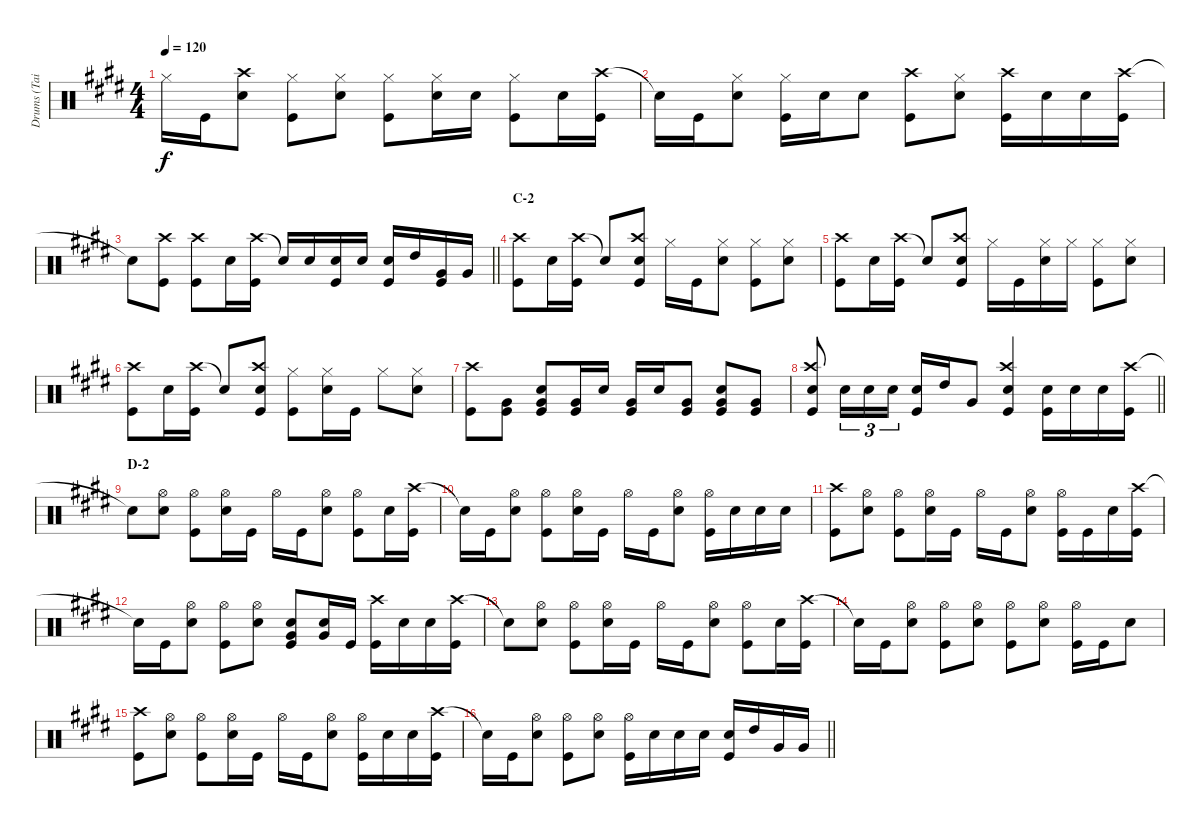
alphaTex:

\track ("Drums (Tainaka Ritsu)" "Drums (Tai") {instrument percussion}
\staff {score}
\articulation defaults
\ts (4 4)
\tempo 120
\clef neutral
\ks e "Hi-Hat (closed)".16{dy f} "Kick (hit)".16
("Crash high (hit)" "Snare (hit) 2").8 ("Hi-Hat (closed)" "Kick (hit)").8 ("Hi-Hat (closed)" "Snare (hit) 2").8 ("Hi-Hat (closed)" "Kick (hit)").8 ("Hi-Hat (closed)" "Snare (hit) 2").16 "Snare (hit) 2".16 ("Hi-Hat (closed)" "Kick (hit)").8 "Snare (hit) 2".16 ("Crash high (hit)" "Kick (hit)").16 |
"Snare (hit)"{t}.16 "Kick (hit)".16 ("Hi-Hat (closed)" "Snare (hit) 2").8 ("Hi-Hat (closed)" "Kick (hit)").16 "Snare (hit) 2".16 "Snare (hit) 2".8 ("Crash high (hit)" "Kick (hit)").8 ("Hi-Hat (closed)" "Snare (hit) 2").8 ("Crash high (hit)" "Kick (hit)").16 "Snare (hit) 2".16 "Snare (hit) 2".16 ("Crash high (hit)" "Kick (hit)").16 |
\barLineRight lightlight "Snare (hit)"{t}.8
("Crash high (hit)" "Kick (hit)").8 ("Crash high (hit)" "Kick (hit)").8 "Snare (hit) 2".16 ("Crash high (hit)" "Kick (hit)").16 "Snare (hit)"{t}.16 "Snare (hit) 2".16 ("Snare (hit) 2" "Kick (hit)").16 "Snare (hit) 2".16 ("Snare (hit) 2" "Kick (hit)").16 "High Tom (hit)".16 ("Very Low Tom (hit)" "Kick (hit)").16 "Very Low Tom (hit)".16 |
\section ("" "C-2")
("Crash high (hit)" "Kick (hit)").8 "Snare (hit) 2".16 ("Crash high (hit)" "Kick (hit)").16 "Snare (hit)"{t}.8 ("Crash high (hit)" "Snare (hit) 2" "Kick (hit)").8 "Hi-Hat (closed)".16 "Kick (hit)".16 ("Hi-Hat (closed)" "Snare (hit) 2").8 ("Hi-Hat (closed)" "Kick (hit)").8 ("Hi-Hat (closed)" "Snare (hit) 2").8 |
("Crash high (hit)" "Kick (hit)").8 "Snare (hit) 2".16 ("Crash high (hit)" "Kick (hit)").16 "Snare (hit)"{t}.8 ("Crash high (hit)" "Snare (hit) 2" "Kick (hit)").8 "Hi-Hat (closed)".16 "Kick (hit)".16 ("Hi-Hat (closed)" "Snare (hit) 2").16 "Hi-Hat (closed)".16 ("Hi-Hat (closed)" "Kick (hit)").8 ("Hi-Hat (closed)" "Snare (hit) 2").8 |
("Crash high (hit)" "Kick (hit)").8 "Snare (hit) 2".16 ("Crash high (hit)" "Kick (hit)").16 "Snare (hit)"{t}.8 ("Crash high (hit)" "Snare (hit) 2" "Kick (hit)").8 ("Hi-Hat (closed)" "Kick (hit)").8 ("Hi-Hat (closed)" "Snare (hit) 2").16 "Kick (hit)".16 "Hi-Hat (closed)".8 ("Hi-Hat (closed)" "Snare (hit) 2").8 |
("Crash high (hit)" "Kick (hit)").8 ("Very Low Tom (hit)" "Kick (hit)").8 ("Snare (hit) 2" "Very Low Tom (hit)" "Kick (hit)").8 ("Very Low Tom (hit)" "Kick (hit)").16 "Snare (hit) 2".16 ("Very Low Tom (hit)" "Kick (hit)").16 "Snare (hit) 2".16 ("Very Low Tom (hit)" "Kick (hit)").8 ("Snare (hit) 2" "Very Low Tom (hit)" "Kick (hit)").8 ("Very Low Tom (hit)" "Kick (hit)").8 |
\barLineRight lightlight
("Crash high (hit)" "Snare (hit) 2" "Kick (hit)").8 "Snare (hit) 2".16{tu (3 2)} "Snare (hit) 2".16{tu (3 2)} "Snare (hit) 2".16{tu (3 2)} ("Snare (hit) 2" "Kick (hit)").16 "High Tom (hit)".16 "Very Low Tom (hit)".8 ("Crash high (hit)" "Snare (hit) 2" "Kick (hit)").4 ("Snare (hit) 2" "Kick (hit)").16 "Snare (hit) 2".16 "Snare (hit) 2".16 ("Crash high (hit)" "Kick (hit)").16 |
\section ("" "D-2")
"Snare (hit)"{t}.8 ("Hi-Hat (open)" "Snare (hit) 2").8 ("Hi-Hat (open)" "Kick (hit)").8 ("Hi-Hat (open)" "Snare (hit) 2").16 "Kick (hit)".16 "Hi-Hat (open)".16 "Kick (hit)".16 ("Hi-Hat (open)" "Snare (hit) 2").8 ("Hi-Hat (open)" "Kick (hit)").8 "Snare (hit) 2".16 ("Crash high (hit)" "Kick (hit)").16 |
"Snare (hit)"{t}.16 "Kick (hit)".16 ("Hi-Hat (open)" "Snare (hit) 2").8 ("Hi-Hat (open)" "Kick (hit)").8 ("Hi-Hat (open)" "Snare (hit) 2").16 "Kick (hit)".16 "Hi-Hat (open)".16 "Kick (hit)".16 ("Hi-Hat (open)" "Snare (hit) 2").8 ("Hi-Hat (open)" "Kick (hit)").16 "Snare (hit) 2".16 "Snare (hit) 2".16 "Snare (hit) 2".16 |
("Crash high (hit)" "Kick (hit)").8 ("Hi-Hat (open)" "Snare (hit) 2").8 ("Hi-Hat (open)" "Kick (hit)").8 ("Hi-Hat (open)" "Snare (hit) 2").16 "Kick (hit)".16 "Hi-Hat (open)".16 "Kick (hit)".16 ("Hi-Hat (open)" "Snare (hit) 2").8 ("Hi-Hat (open)" "Kick (hit)").16 "Kick (hit)".16 "Snare (hit) 2".16 ("Crash high (hit)" "Kick (hit)").16 |
"Snare (hit)"{t}.16 "Kick (hit)".16 ("Hi-Hat (open)" "Snare (hit) 2").8 ("Hi-Hat (open)" "Kick (hit)").8 ("Hi-Hat (open)" "Snare (hit) 2").8 ("Snare (hit) 2" "Very Low Tom (hit)" "Kick (hit)").8 ("Snare (hit) 2" "Very Low Tom (hit)").16 "Kick (hit)".16 ("Crash high (hit)" "Kick (hit)").16 "Snare (hit) 2".16 "Snare (hit) 2".16 ("Crash high (hit)" "Kick (hit)").16 |
"Snare (hit)"{t}.8 ("Hi-Hat (open)" "Snare (hit) 2").8 ("Hi-Hat (open)" "Kick (hit)").8 ("Hi-Hat (open)" "Snare (hit) 2").16 "Kick (hit)".16 "Hi-Hat (open)".16 "Kick (hit)".16 ("Hi-Hat (open)" "Snare (hit) 2").8 ("Hi-Hat (open)" "Kick (hit)").8 "Snare (hit) 2".16 ("Crash high (hit)" "Kick (hit)").16 |
"Snare (hit)"{t}.16 "Kick (hit)".16 ("Hi-Hat (open)" "Snare (hit) 2").8 ("Hi-Hat (open)" "Kick (hit)").8 ("Hi-Hat (open)" "Snare (hit) 2").8 ("Hi-Hat (open)" "Kick (hit)").8 ("Hi-Hat (open)" "Snare (hit) 2").8 ("Hi-Hat (open)" "Kick (hit)").16 "Kick (hit)".16 "Snare (hit) 2".8 |
("Crash high (hit)" "Kick (hit)").8 ("Hi-Hat (open)" "Snare (hit) 2").8 ("Hi-Hat (open)" "Kick (hit)").8 ("Hi-Hat (open)" "Snare (hit) 2").16 "Kick (hit)".16 "Hi-Hat (open)".16 "Kick (hit)".16 ("Hi-Hat (open)" "Snare (hit) 2").8 ("Hi-Hat (open)" "Kick (hit)").16 "Snare (hit) 2".16 "Snare (hit) 2".16 ("Crash high (hit)" "Kick (hit)").16 |
\barLineRight lightlight "Snare (hit)"{t}.16 "Kick (hit)".16
("Hi-Hat (open)" "Snare (hit) 2").8 ("Hi-Hat (open)" "Kick (hit)").8 ("Hi-Hat (open)" "Snare (hit) 2").8 ("Hi-Hat (open)" "Kick (hit)").16 "Snare (hit) 2".16 "Snare (hit) 2".16 "Snare (hit) 2".16 ("Snare (hit) 2" "Kick (hit)").16 "High Tom (hit)".16 "Very Low Tom (hit)".16 "Very Low Tom (hit)".16
